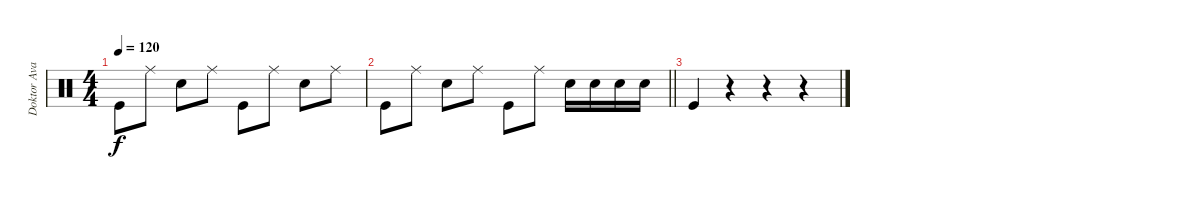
\track ("Doktor Avalanche" "Doktor Ava") {instrument percussion}
\staff {score}
\articulation defaults
\ts (4 4)
\tempo 120
\clef neutral
\ks c "Kick (hit)".8{dy f} "Ride (middle)".8 "Snare (hit) 2".8 "Ride (middle)".8 "Kick (hit)".8 "Ride (middle)".8 "Snare (hit) 2".8 "Ride (middle)".8
|
\barLineRight lightlight "Kick (hit)".8 "Ride (middle)".8 "Snare (hit) 2".8 "Ride (middle)".8 "Kick (hit)".8 "Ride (middle)".8 "Snare (hit) 2".16 "Snare (hit) 2".16 "Snare (hit) 2".16 "Snare (hit) 2".16
|
"Kick (hit)".4 r.4 r.4 r.4
